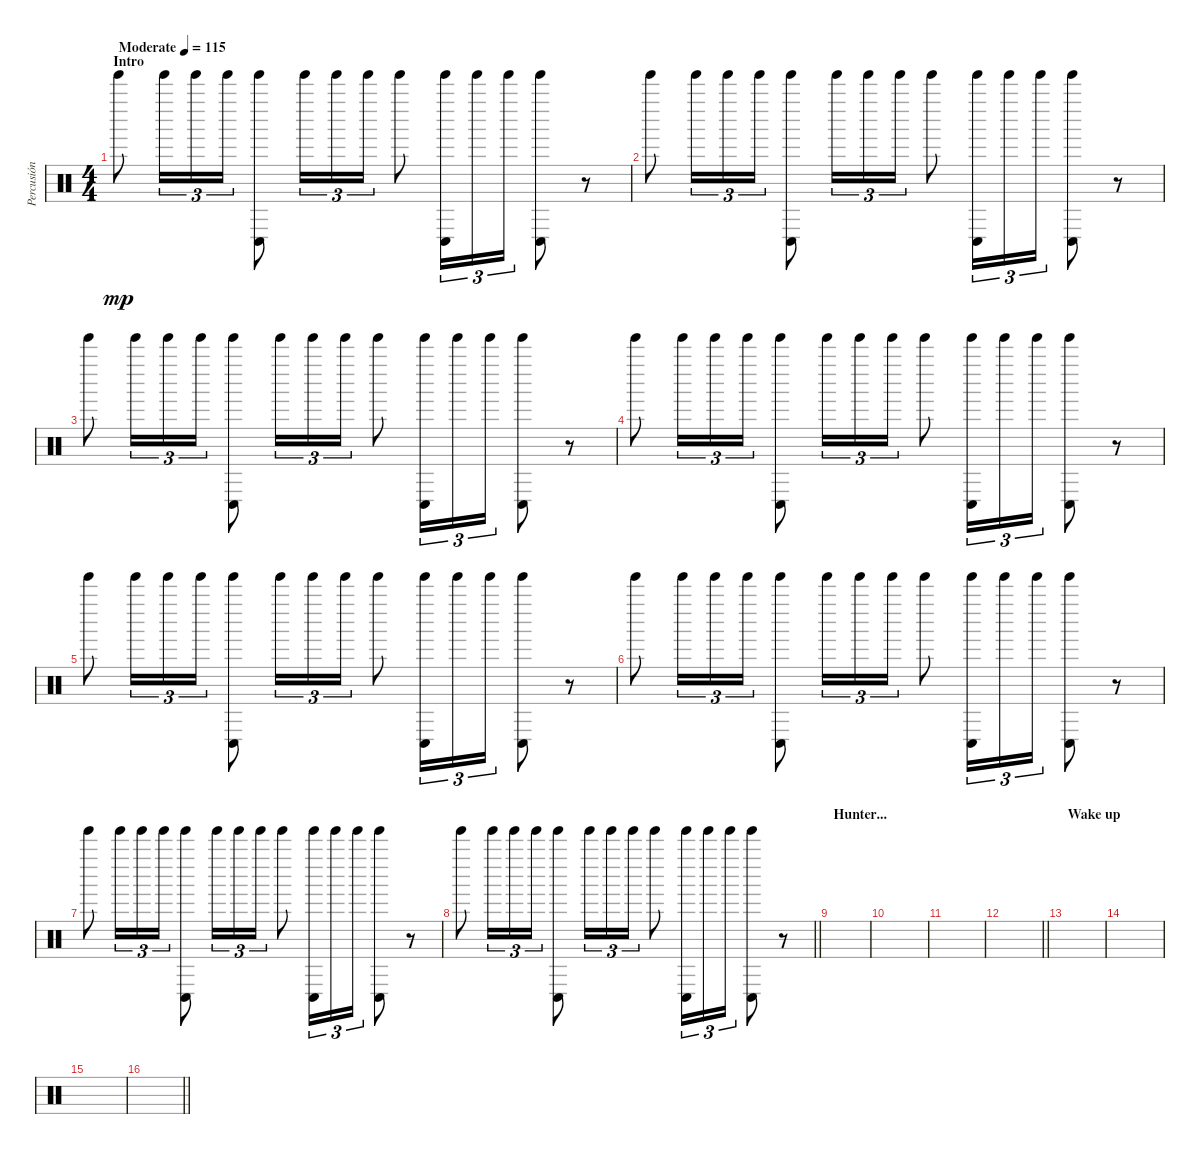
\track ("Percusión" "Percusión") {instrument percussion}
\staff {score}
\articulation defaults
\ts (4 4)
\section ("" "Intro")
\tempo (115 "Moderate")
\clef neutral
\ks c "Tinkle Bell (hit)".8{dy mp} "Tinkle Bell (hit)".16{tu (3 2)} "Tinkle Bell (hit)".16{tu (3 2)} "Tinkle Bell (hit)".16{tu (3 2)}
("Tinkle Bell (hit)" "Conga low (hit)").8 "Tinkle Bell (hit)".16{tu (3 2)} "Tinkle Bell (hit)".16{tu (3 2)} "Tinkle Bell (hit)".16{tu (3 2)} "Tinkle Bell (hit)".8 ("Tinkle Bell (hit)" "Conga low (hit)").16{tu (3 2)} "Tinkle Bell (hit)".16{tu (3 2)} "Tinkle Bell (hit)".16{tu (3 2)} ("Tinkle Bell (hit)" "Conga low (hit)").8 r.8 |
"Tinkle Bell (hit)".8 "Tinkle Bell (hit)".16{tu (3 2)} "Tinkle Bell (hit)".16{tu (3 2)} "Tinkle Bell (hit)".16{tu (3 2)} ("Tinkle Bell (hit)" "Conga low (hit)").8 "Tinkle Bell (hit)".16{tu (3 2)} "Tinkle Bell (hit)".16{tu (3 2)} "Tinkle Bell (hit)".16{tu (3 2)} "Tinkle Bell (hit)".8 ("Tinkle Bell (hit)" "Conga low (hit)").16{tu (3 2)} "Tinkle Bell (hit)".16{tu (3 2)} "Tinkle Bell (hit)".16{tu (3 2)} ("Tinkle Bell (hit)" "Conga low (hit)").8 r.8 |
"Tinkle Bell (hit)".8 "Tinkle Bell (hit)".16{tu (3 2)} "Tinkle Bell (hit)".16{tu (3 2)} "Tinkle Bell (hit)".16{tu (3 2)} ("Tinkle Bell (hit)" "Conga low (hit)").8 "Tinkle Bell (hit)".16{tu (3 2)} "Tinkle Bell (hit)".16{tu (3 2)} "Tinkle Bell (hit)".16{tu (3 2)} "Tinkle Bell (hit)".8 ("Tinkle Bell (hit)" "Conga low (hit)").16{tu (3 2)} "Tinkle Bell (hit)".16{tu (3 2)} "Tinkle Bell (hit)".16{tu (3 2)} ("Tinkle Bell (hit)" "Conga low (hit)").8 r.8 |
"Tinkle Bell (hit)".8 "Tinkle Bell (hit)".16{tu (3 2)} "Tinkle Bell (hit)".16{tu (3 2)} "Tinkle Bell (hit)".16{tu (3 2)} ("Tinkle Bell (hit)" "Conga low (hit)").8 "Tinkle Bell (hit)".16{tu (3 2)} "Tinkle Bell (hit)".16{tu (3 2)} "Tinkle Bell (hit)".16{tu (3 2)} "Tinkle Bell (hit)".8 ("Tinkle Bell (hit)" "Conga low (hit)").16{tu (3 2)} "Tinkle Bell (hit)".16{tu (3 2)} "Tinkle Bell (hit)".16{tu (3 2)} ("Tinkle Bell (hit)" "Conga low (hit)").8 r.8 |
"Tinkle Bell (hit)".8 "Tinkle Bell (hit)".16{tu (3 2)} "Tinkle Bell (hit)".16{tu (3 2)} "Tinkle Bell (hit)".16{tu (3 2)} ("Tinkle Bell (hit)" "Conga low (hit)").8 "Tinkle Bell (hit)".16{tu (3 2)} "Tinkle Bell (hit)".16{tu (3 2)} "Tinkle Bell (hit)".16{tu (3 2)} "Tinkle Bell (hit)".8 ("Tinkle Bell (hit)" "Conga low (hit)").16{tu (3 2)} "Tinkle Bell (hit)".16{tu (3 2)} "Tinkle Bell (hit)".16{tu (3 2)} ("Tinkle Bell (hit)" "Conga low (hit)").8 r.8 |
"Tinkle Bell (hit)".8 "Tinkle Bell (hit)".16{tu (3 2)} "Tinkle Bell (hit)".16{tu (3 2)} "Tinkle Bell (hit)".16{tu (3 2)} ("Tinkle Bell (hit)" "Conga low (hit)").8 "Tinkle Bell (hit)".16{tu (3 2)} "Tinkle Bell (hit)".16{tu (3 2)} "Tinkle Bell (hit)".16{tu (3 2)} "Tinkle Bell (hit)".8 ("Tinkle Bell (hit)" "Conga low (hit)").16{tu (3 2)} "Tinkle Bell (hit)".16{tu (3 2)} "Tinkle Bell (hit)".16{tu (3 2)} ("Tinkle Bell (hit)" "Conga low (hit)").8 r.8 |
"Tinkle Bell (hit)".8 "Tinkle Bell (hit)".16{tu (3 2)} "Tinkle Bell (hit)".16{tu (3 2)} "Tinkle Bell (hit)".16{tu (3 2)} ("Tinkle Bell (hit)" "Conga low (hit)").8 "Tinkle Bell (hit)".16{tu (3 2)} "Tinkle Bell (hit)".16{tu (3 2)} "Tinkle Bell (hit)".16{tu (3 2)} "Tinkle Bell (hit)".8 ("Tinkle Bell (hit)" "Conga low (hit)").16{tu (3 2)} "Tinkle Bell (hit)".16{tu (3 2)} "Tinkle Bell (hit)".16{tu (3 2)} ("Tinkle Bell (hit)" "Conga low (hit)").8 r.8 |
\barLineRight lightlight "Tinkle Bell (hit)".8 "Tinkle Bell (hit)".16{tu (3 2)} "Tinkle Bell (hit)".16{tu (3 2)} "Tinkle Bell (hit)".16{tu (3 2)}
("Tinkle Bell (hit)" "Conga low (hit)").8 "Tinkle Bell (hit)".16{tu (3 2)} "Tinkle Bell (hit)".16{tu (3 2)} "Tinkle Bell (hit)".16{tu (3 2)} "Tinkle Bell (hit)".8 ("Tinkle Bell (hit)" "Conga low (hit)").16{tu (3 2)} "Tinkle Bell (hit)".16{tu (3 2)} "Tinkle Bell (hit)".16{tu (3 2)} ("Tinkle Bell (hit)" "Conga low (hit)").8 r.8 |
\section ("" "Hunter...")
|
|
|
\barLineRight lightlight
|
\section ("" "Wake up")
|
|
|
\barLineRight lightlight
